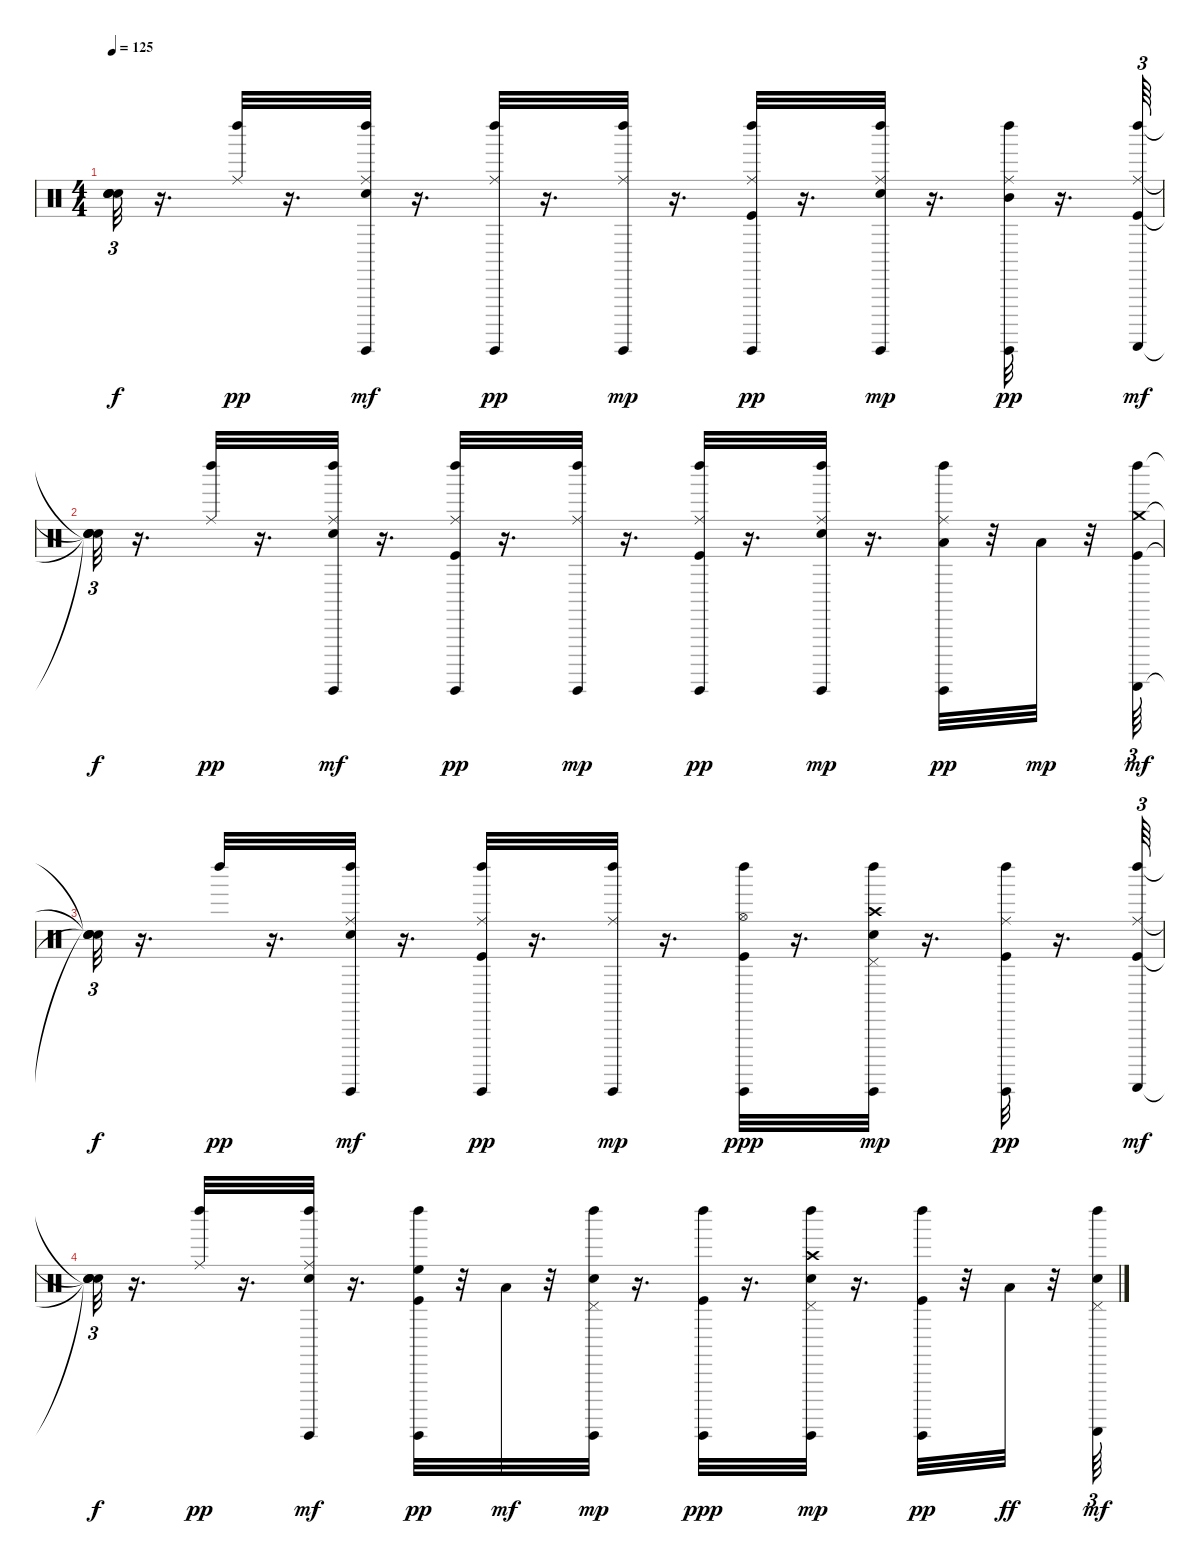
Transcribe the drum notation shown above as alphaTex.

\track "" {instrument percussion}
\staff {score}
\articulation defaults
\ts (4 4)
\tempo 125
\clef neutral
\ks c
("Snare (hit)"{t} "Snare (hit)"{t} "Snare (hit)"{t} "Snare (hit)"{t}).32{tu (3 2) dy f} r.16{d} ("Left Maraca (hit)" "Ride (middle)").32{dy pp} r.16{d} ("Electric Snare (hit)" "Left Maraca (hit)" "Ride (middle)" "Guiro (hit)").32{dy mf} r.16{d} ("Ride (middle)" "Left Maraca (hit)" "Guiro (hit)").32{dy pp} r.16{d} ("Left Maraca (hit)" "Ride (middle)" "Guiro (hit)").32{dy mp} r.16{d} ("Kick (hit)" "Left Maraca (hit)" "Ride (middle)" "Guiro (hit)").32{dy pp} r.16{d} ("Electric Snare (hit)" "Left Maraca (hit)" "Ride (middle)" "Guiro (hit)").32{dy mp} r.16{d} ("Left Maraca (hit)" "Ride (middle)" "Mid Tom (hit)" "Guiro (hit)").32{dy pp} r.16{d} ("Ride (middle)" "Kick (hit)" "Left Maraca (hit)" "Guiro (scrap-return)").64{tu (3 2) dy mf} |
("Snare (hit)"{t} "Snare (hit)"{t} "Snare (hit)"{t} "Snare (hit)"{t}).32{tu (3 2) dy f} r.16{d} ("Left Maraca (hit)" "Ride (middle)").32{dy pp} r.16{d} ("Electric Snare (hit)" "Left Maraca (hit)" "Ride (middle)" "Guiro (hit)").32{dy mf} r.16{d} ("Left Maraca (hit)" "Ride (middle)" "Kick (hit)" "Guiro (hit)").32{dy pp} r.16{d} ("Left Maraca (hit)" "Ride (middle)" "Guiro (hit)").32{dy mp} r.16{d} ("Ride (middle)" "Kick (hit)" "Left Maraca (hit)" "Guiro (hit)").32{dy pp} r.16{d} ("Electric Snare (hit)" "Left Maraca (hit)" "Ride (middle)" "Guiro (hit)").32{dy mp} r.16{d} ("Left Maraca (hit)" "Ride (middle)" "Low Tom (hit)" "Guiro (hit)").32{dy pp} r.32 "Low Tom (hit)".32{dy mp} r.32 ("Kick (hit)" "Left Maraca (hit)" "Crash medium (hit)" "Guiro (scrap-return)").64{tu (3 2) dy mf} |
("Snare (hit)"{t} "Snare (hit)"{t} "Snare (hit)"{t} "Snare (hit)"{t}).32{tu (3 2) dy f} r.16{d} "Left Maraca (hit)".32{dy pp} r.16{d} ("Ride (middle)" "Left Maraca (hit)" "Electric Snare (hit)" "Guiro (hit)").32{dy mf} r.16{d} ("Kick (hit)" "Left Maraca (hit)" "Ride (middle)" "Guiro (hit)").32{dy pp} r.16{d} ("Ride (middle)" "Left Maraca (hit)" "Guiro (hit)").32{dy mp} r.16{d} ("Left Maraca (hit)" "Kick (hit)" "Hi-Hat (open)" "Guiro (hit)").32{dy ppp} r.16{d} ("Crash high (hit)" "Pedal Hi-Hat (hit)" "Left Maraca (hit)" "Electric Snare (hit)" "Guiro (hit)").32{dy mp} r.16{d} ("Kick (hit)" "Ride (middle)" "Left Maraca (hit)" "Guiro (hit)").32{dy pp} r.16{d} ("Kick (hit)" "Left Maraca (hit)" "Ride (middle)" "Guiro (scrap-return)").64{tu (3 2) dy mf} |
("Snare (hit)"{t} "Snare (hit)"{t} "Snare (hit)"{t} "Snare (hit)"{t}).32{tu (3 2) dy f} r.16{d} ("Ride (middle)" "Left Maraca (hit)").32{dy pp} r.16{d} ("Ride (middle)" "Electric Snare (hit)" "Left Maraca (hit)" "Guiro (hit)").32{dy mf} r.16{d} ("Kick (hit)" "Left Maraca (hit)" "High Floor Tom (hit)" "Guiro (hit)").32{dy pp} r.32 "Low Tom (hit)".32{dy mf} r.32 ("Pedal Hi-Hat (hit)" "Electric Snare (hit)" "Left Maraca (hit)" "Guiro (hit)").32{dy mp} r.16{d} ("Left Maraca (hit)" "Kick (hit)" "Guiro (hit)").32{dy ppp} r.16{d} ("Electric Snare (hit)" "Left Maraca (hit)" "Crash high (hit)" "Pedal Hi-Hat (hit)" "Guiro (hit)").32{dy mp} r.16{d} ("Left Maraca (hit)" "Kick (hit)" "Guiro (hit)").32{dy pp} r.32 "Low Tom (hit)".32{dy ff} r.32 ("Left Maraca (hit)" "Electric Snare (hit)" "Pedal Hi-Hat (hit)" "Guiro (scrap-return)").64{tu (3 2) dy mf}
